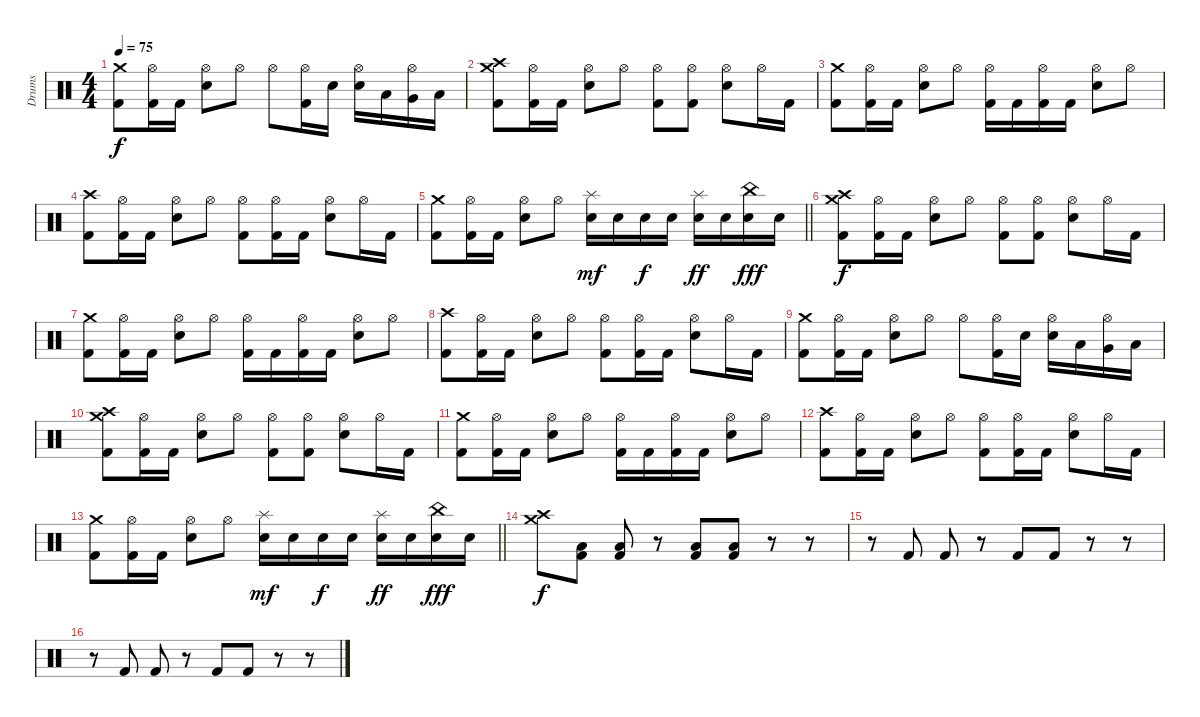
\track ("Drums" "Drums") {instrument percussion}
\staff {score}
\articulation defaults
\ts (4 4)
\tempo 75
\clef neutral
\ks c
("Kick (hit) 2" "Crash medium (hit)").8{dy f} ("Kick (hit) 2" "Hi-Hat (open)").16 "Kick (hit) 2".16 ("Electric Snare (hit)" "Hi-Hat (open)").8 "Hi-Hat (open)".8 "Hi-Hat (open)".8 ("Kick (hit) 2" "Hi-Hat (open)").16 "Electric Snare (hit)".16 ("Electric Snare (hit)" "Hi-Hat (open)").16 "Low Tom (hit)".16 ("Very Low Tom (hit)" "Hi-Hat (open)").16 "Low Floor Tom (hit)".16 |
("Kick (hit) 2" "Crash high (hit)" "Crash medium (hit)").8 ("Kick (hit) 2" "Hi-Hat (open)").16 "Kick (hit) 2".16 ("Electric Snare (hit)" "Hi-Hat (open)").8 "Hi-Hat (open)".8 ("Kick (hit) 2" "Hi-Hat (open)").8 ("Kick (hit) 2" "Hi-Hat (open)").8 ("Electric Snare (hit)" "Hi-Hat (open)").8 "Hi-Hat (open)".16 "Kick (hit) 2".16 |
("Kick (hit) 2" "Crash medium (hit)").8 ("Kick (hit) 2" "Hi-Hat (open)").16 "Kick (hit) 2".16 ("Electric Snare (hit)" "Hi-Hat (open)").8 "Hi-Hat (open)".8 ("Kick (hit) 2" "Hi-Hat (open)").16 "Kick (hit) 2".16 ("Kick (hit) 2" "Hi-Hat (open)").16 "Kick (hit) 2".16 ("Electric Snare (hit)" "Hi-Hat (open)").8 "Hi-Hat (open)".8 |
("Kick (hit) 2" "Crash high (hit)").8 ("Kick (hit) 2" "Hi-Hat (open)").16 "Kick (hit) 2".16 ("Electric Snare (hit)" "Hi-Hat (open)").8 "Hi-Hat (open)".8 ("Kick (hit) 2" "Hi-Hat (open)").8 ("Kick (hit) 2" "Hi-Hat (open)").16 "Kick (hit) 2".16 ("Electric Snare (hit)" "Hi-Hat (open)").8 "Hi-Hat (open)".16 "Kick (hit) 2".16 |
\barLineRight lightlight
("Kick (hit) 2" "Crash medium (hit)").8 ("Kick (hit) 2" "Hi-Hat (open)").16 "Kick (hit) 2".16 ("Electric Snare (hit)" "Hi-Hat (open)").8 "Hi-Hat (open)".8 ("Electric Snare (hit)" "Splash (hit)").16{dy mf} "Electric Snare (hit)".16 "Electric Snare (hit)".16{dy f} "Electric Snare (hit)".16 ("Electric Snare (hit)" "Splash (hit)").16{dy ff} "Electric Snare (hit)".16 ("Electric Snare (hit)" "China (hit)").16{dy fff} "Electric Snare (hit)".16 |
("Kick (hit) 2" "Crash high (hit)" "Crash medium (hit)").8{dy f} ("Kick (hit) 2" "Hi-Hat (open)").16 "Kick (hit) 2".16 ("Electric Snare (hit)" "Hi-Hat (open)").8 "Hi-Hat (open)".8 ("Kick (hit) 2" "Hi-Hat (open)").8 ("Kick (hit) 2" "Hi-Hat (open)").8 ("Electric Snare (hit)" "Hi-Hat (open)").8 "Hi-Hat (open)".16 "Kick (hit) 2".16 |
("Kick (hit) 2" "Crash medium (hit)").8 ("Kick (hit) 2" "Hi-Hat (open)").16 "Kick (hit) 2".16 ("Electric Snare (hit)" "Hi-Hat (open)").8 "Hi-Hat (open)".8 ("Kick (hit) 2" "Hi-Hat (open)").16 "Kick (hit) 2".16 ("Kick (hit) 2" "Hi-Hat (open)").16 "Kick (hit) 2".16 ("Electric Snare (hit)" "Hi-Hat (open)").8 "Hi-Hat (open)".8 |
("Kick (hit) 2" "Crash high (hit)").8 ("Kick (hit) 2" "Hi-Hat (open)").16 "Kick (hit) 2".16 ("Electric Snare (hit)" "Hi-Hat (open)").8 "Hi-Hat (open)".8 ("Kick (hit) 2" "Hi-Hat (open)").8 ("Kick (hit) 2" "Hi-Hat (open)").16 "Kick (hit) 2".16 ("Electric Snare (hit)" "Hi-Hat (open)").8 "Hi-Hat (open)".16 "Kick (hit) 2".16 |
("Kick (hit) 2" "Crash medium (hit)").8 ("Kick (hit) 2" "Hi-Hat (open)").16 "Kick (hit) 2".16 ("Electric Snare (hit)" "Hi-Hat (open)").8 "Hi-Hat (open)".8 "Hi-Hat (open)".8 ("Kick (hit) 2" "Hi-Hat (open)").16 "Electric Snare (hit)".16 ("Electric Snare (hit)" "Hi-Hat (open)").16 "Low Tom (hit)".16 ("Very Low Tom (hit)" "Hi-Hat (open)").16 "Low Floor Tom (hit)".16 |
("Kick (hit) 2" "Crash high (hit)" "Crash medium (hit)").8 ("Kick (hit) 2" "Hi-Hat (open)").16 "Kick (hit) 2".16 ("Electric Snare (hit)" "Hi-Hat (open)").8 "Hi-Hat (open)".8 ("Kick (hit) 2" "Hi-Hat (open)").8 ("Kick (hit) 2" "Hi-Hat (open)").8 ("Electric Snare (hit)" "Hi-Hat (open)").8 "Hi-Hat (open)".16 "Kick (hit) 2".16 |
("Kick (hit) 2" "Crash medium (hit)").8 ("Kick (hit) 2" "Hi-Hat (open)").16 "Kick (hit) 2".16 ("Electric Snare (hit)" "Hi-Hat (open)").8 "Hi-Hat (open)".8 ("Kick (hit) 2" "Hi-Hat (open)").16 "Kick (hit) 2".16 ("Kick (hit) 2" "Hi-Hat (open)").16 "Kick (hit) 2".16 ("Electric Snare (hit)" "Hi-Hat (open)").8 "Hi-Hat (open)".8 |
("Kick (hit) 2" "Crash high (hit)").8 ("Kick (hit) 2" "Hi-Hat (open)").16 "Kick (hit) 2".16 ("Electric Snare (hit)" "Hi-Hat (open)").8 "Hi-Hat (open)".8 ("Kick (hit) 2" "Hi-Hat (open)").8 ("Kick (hit) 2" "Hi-Hat (open)").16 "Kick (hit) 2".16 ("Electric Snare (hit)" "Hi-Hat (open)").8 "Hi-Hat (open)".16 "Kick (hit) 2".16 |
\barLineRight lightlight
("Kick (hit) 2" "Crash medium (hit)").8 ("Kick (hit) 2" "Hi-Hat (open)").16 "Kick (hit) 2".16 ("Electric Snare (hit)" "Hi-Hat (open)").8 "Hi-Hat (open)".8 ("Electric Snare (hit)" "Splash (hit)").16{dy mf} "Electric Snare (hit)".16 "Electric Snare (hit)".16{dy f} "Electric Snare (hit)".16 ("Electric Snare (hit)" "Splash (hit)").16{dy ff} "Electric Snare (hit)".16 ("Electric Snare (hit)" "China (hit)").16{dy fff} "Electric Snare (hit)".16 |
("Crash high (hit)" "Crash medium (hit)").8{dy f} ("Kick (hit) 2" "Low Floor Tom (hit)").8 ("Kick (hit) 2" "Low Floor Tom (hit)").8 r.8 ("Kick (hit) 2" "Low Floor Tom (hit)").8 ("Kick (hit) 2" "Low Floor Tom (hit)").8 r.8 r.8 |
r.8 "Kick (hit) 2".8 "Kick (hit) 2".8 r.8 "Kick (hit) 2".8 "Kick (hit) 2".8 r.8 r.8 |
r.8 "Kick (hit) 2".8 "Kick (hit) 2".8 r.8 "Kick (hit) 2".8 "Kick (hit) 2".8 r.8 r.8
